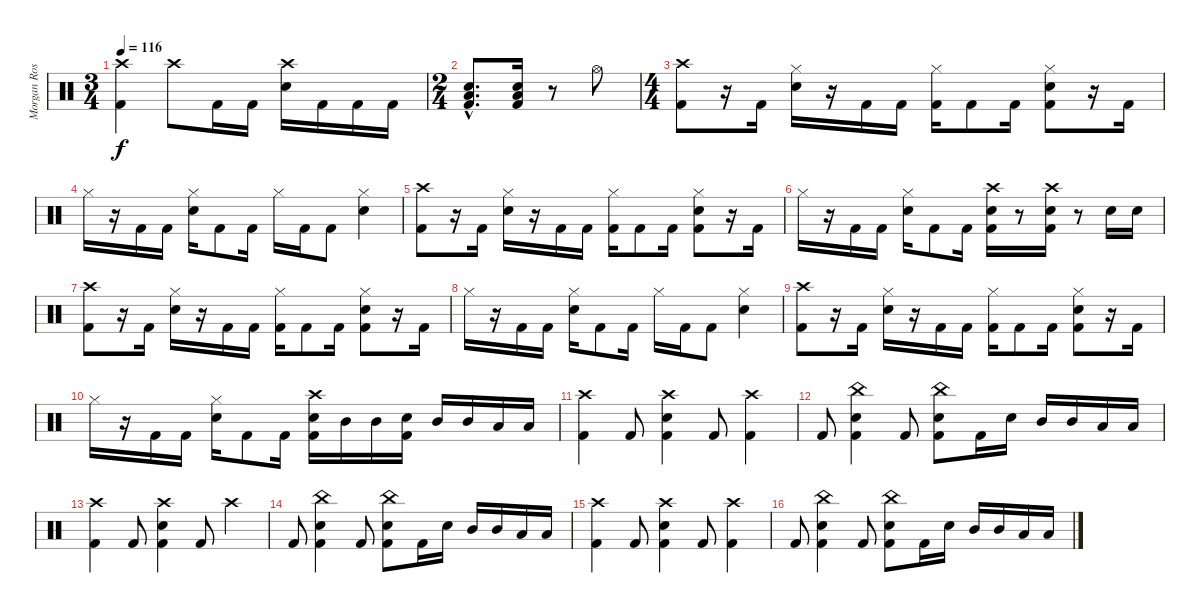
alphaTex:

\track ("Morgan Rose - Drums" "Morgan Ros") {instrument percussion}
\staff {score}
\articulation defaults
\ts (3 4)
\tempo 116
\clef neutral
\ks c
("Crash high (hit)" "Kick (hit) 2").4{dy f} "Crash high (hit)".8 "Kick (hit) 2".16 "Kick (hit) 2".16 ("Crash high (hit)" "Electric Snare (hit)").16 "Kick (hit) 2".16 "Kick (hit) 2".16 "Kick (hit) 2".16 |
\ts (2 4)
("Electric Snare (hit)"{hac} "Low Tom (hit)"{hac} "Kick (hit) 2"{hac}).8{d} ("Electric Snare (hit)" "Low Tom (hit)" "Kick (hit) 2").16 r.8 "Hi-Hat (open)".8 |
\ts (4 4)
("Crash high (hit)" "Kick (hit) 2").8 r.16 "Kick (hit) 2".16 ("Hi-Hat (closed)" "Electric Snare (hit)").16 r.16 "Kick (hit) 2".16 "Kick (hit) 2".16 ("Hi-Hat (closed)" "Kick (hit) 2").16 "Kick (hit) 2".8 "Kick (hit) 2".16 ("Hi-Hat (closed)" "Electric Snare (hit)" "Kick (hit) 2").8 r.16 "Kick (hit) 2".16 |
"Hi-Hat (closed)".16 r.16 "Kick (hit) 2".16 "Kick (hit) 2".16 ("Hi-Hat (closed)" "Electric Snare (hit)").16 "Kick (hit) 2".8 "Kick (hit) 2".16 "Hi-Hat (closed)".16 "Kick (hit) 2".16 "Kick (hit) 2".8 ("Hi-Hat (closed)" "Electric Snare (hit)").4 |
("Crash high (hit)" "Kick (hit) 2").8 r.16 "Kick (hit) 2".16 ("Hi-Hat (closed)" "Electric Snare (hit)").16 r.16 "Kick (hit) 2".16 "Kick (hit) 2".16 ("Hi-Hat (closed)" "Kick (hit) 2").16 "Kick (hit) 2".8 "Kick (hit) 2".16 ("Hi-Hat (closed)" "Electric Snare (hit)" "Kick (hit) 2").8 r.16 "Kick (hit) 2".16 |
"Hi-Hat (closed)".16 r.16 "Kick (hit) 2".16 "Kick (hit) 2".16 ("Hi-Hat (closed)" "Electric Snare (hit)").16 "Kick (hit) 2".8 "Kick (hit) 2".16 ("Crash high (hit)" "Electric Snare (hit)" "Kick (hit) 2").16 r.8 ("Crash high (hit)" "Electric Snare (hit)" "Kick (hit) 2").16 r.8 "Electric Snare (hit)".16 "Electric Snare (hit)".16 |
("Crash high (hit)" "Kick (hit) 2").8 r.16 "Kick (hit) 2".16 ("Hi-Hat (closed)" "Electric Snare (hit)").16 r.16 "Kick (hit) 2".16 "Kick (hit) 2".16 ("Hi-Hat (closed)" "Kick (hit) 2").16 "Kick (hit) 2".8 "Kick (hit) 2".16 ("Hi-Hat (closed)" "Electric Snare (hit)" "Kick (hit) 2").8 r.16 "Kick (hit) 2".16 |
"Hi-Hat (closed)".16 r.16 "Kick (hit) 2".16 "Kick (hit) 2".16 ("Hi-Hat (closed)" "Electric Snare (hit)").16 "Kick (hit) 2".8 "Kick (hit) 2".16 "Hi-Hat (closed)".16 "Kick (hit) 2".16 "Kick (hit) 2".8 ("Hi-Hat (closed)" "Electric Snare (hit)").4 |
("Crash high (hit)" "Kick (hit) 2").8 r.16 "Kick (hit) 2".16 ("Hi-Hat (closed)" "Electric Snare (hit)").16 r.16 "Kick (hit) 2".16 "Kick (hit) 2".16 ("Hi-Hat (closed)" "Kick (hit) 2").16 "Kick (hit) 2".8 "Kick (hit) 2".16 ("Hi-Hat (closed)" "Electric Snare (hit)" "Kick (hit) 2").8 r.16 "Kick (hit) 2".16 |
"Hi-Hat (closed)".16 r.16 "Kick (hit) 2".16 "Kick (hit) 2".16 ("Hi-Hat (closed)" "Electric Snare (hit)").16 "Kick (hit) 2".8 "Kick (hit) 2".16 ("Crash high (hit)" "Electric Snare (hit)" "Kick (hit) 2").16 "Mid Tom (hit)".16 "Mid Tom (hit)".16 ("Electric Snare (hit)" "Kick (hit) 2").16 "Mid Tom (hit)".16 "Mid Tom (hit)".16 "Low Tom (hit)".16 "Low Tom (hit)".16 |
("Crash high (hit)" "Kick (hit) 2").4 "Kick (hit) 2".8 ("Crash high (hit)" "Electric Snare (hit)" "Kick (hit) 2").4 "Kick (hit) 2".8 ("Crash high (hit)" "Kick (hit) 2").4 |
"Kick (hit) 2".8 ("China (hit)" "Electric Snare (hit)" "Kick (hit) 2").4 "Kick (hit) 2".8 ("China (hit)" "Electric Snare (hit)" "Kick (hit) 2").8 "Kick (hit) 2".16 "Electric Snare (hit)".16 "Mid Tom (hit)".16 "Mid Tom (hit)".16 "Low Tom (hit)".16 "Low Tom (hit)".16 |
("Crash high (hit)" "Kick (hit) 2").4 "Kick (hit) 2".8 ("Crash high (hit)" "Electric Snare (hit)" "Kick (hit) 2").4 "Kick (hit) 2".8 "Crash high (hit)".4 |
"Kick (hit) 2".8 ("China (hit)" "Electric Snare (hit)" "Kick (hit) 2").4 "Kick (hit) 2".8 ("China (hit)" "Electric Snare (hit)" "Kick (hit) 2").8 "Kick (hit) 2".16 "Electric Snare (hit)".16 "Mid Tom (hit)".16 "Mid Tom (hit)".16 "Low Tom (hit)".16 "Low Tom (hit)".16 |
("Crash high (hit)" "Kick (hit) 2").4 "Kick (hit) 2".8 ("Crash high (hit)" "Electric Snare (hit)" "Kick (hit) 2").4 "Kick (hit) 2".8 ("Crash high (hit)" "Kick (hit) 2").4 |
"Kick (hit) 2".8 ("China (hit)" "Electric Snare (hit)" "Kick (hit) 2").4 "Kick (hit) 2".8 ("China (hit)" "Electric Snare (hit)" "Kick (hit) 2").8 "Kick (hit) 2".16 "Electric Snare (hit)".16 "Mid Tom (hit)".16 "Mid Tom (hit)".16 "Low Tom (hit)".16 "Low Tom (hit)".16
